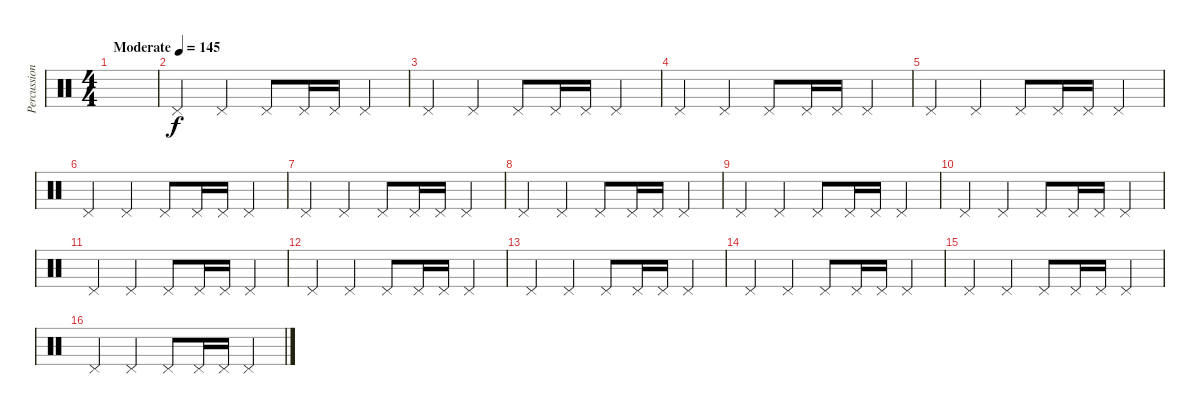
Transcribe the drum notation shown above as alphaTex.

\track ("Percussion" "Percussion") {instrument percussion}
\staff {score}
\articulation defaults
\ts (4 4)
\tempo (145 "Moderate")
\clef neutral
\ks c
|
"Pedal Hi-Hat (hit)".4 "Pedal Hi-Hat (hit)".4 "Pedal Hi-Hat (hit)".8 "Pedal Hi-Hat (hit)".16 "Pedal Hi-Hat (hit)".16 "Pedal Hi-Hat (hit)".4 |
"Pedal Hi-Hat (hit)".4 "Pedal Hi-Hat (hit)".4 "Pedal Hi-Hat (hit)".8 "Pedal Hi-Hat (hit)".16 "Pedal Hi-Hat (hit)".16 "Pedal Hi-Hat (hit)".4 |
"Pedal Hi-Hat (hit)".4 "Pedal Hi-Hat (hit)".4 "Pedal Hi-Hat (hit)".8 "Pedal Hi-Hat (hit)".16 "Pedal Hi-Hat (hit)".16 "Pedal Hi-Hat (hit)".4 |
"Pedal Hi-Hat (hit)".4 "Pedal Hi-Hat (hit)".4 "Pedal Hi-Hat (hit)".8 "Pedal Hi-Hat (hit)".16 "Pedal Hi-Hat (hit)".16 "Pedal Hi-Hat (hit)".4 |
"Pedal Hi-Hat (hit)".4 "Pedal Hi-Hat (hit)".4 "Pedal Hi-Hat (hit)".8 "Pedal Hi-Hat (hit)".16 "Pedal Hi-Hat (hit)".16 "Pedal Hi-Hat (hit)".4 |
"Pedal Hi-Hat (hit)".4 "Pedal Hi-Hat (hit)".4 "Pedal Hi-Hat (hit)".8 "Pedal Hi-Hat (hit)".16 "Pedal Hi-Hat (hit)".16 "Pedal Hi-Hat (hit)".4 |
"Pedal Hi-Hat (hit)".4 "Pedal Hi-Hat (hit)".4 "Pedal Hi-Hat (hit)".8 "Pedal Hi-Hat (hit)".16 "Pedal Hi-Hat (hit)".16 "Pedal Hi-Hat (hit)".4 |
"Pedal Hi-Hat (hit)".4 "Pedal Hi-Hat (hit)".4 "Pedal Hi-Hat (hit)".8 "Pedal Hi-Hat (hit)".16 "Pedal Hi-Hat (hit)".16 "Pedal Hi-Hat (hit)".4 |
"Pedal Hi-Hat (hit)".4 "Pedal Hi-Hat (hit)".4 "Pedal Hi-Hat (hit)".8 "Pedal Hi-Hat (hit)".16 "Pedal Hi-Hat (hit)".16 "Pedal Hi-Hat (hit)".4 |
"Pedal Hi-Hat (hit)".4 "Pedal Hi-Hat (hit)".4 "Pedal Hi-Hat (hit)".8 "Pedal Hi-Hat (hit)".16 "Pedal Hi-Hat (hit)".16 "Pedal Hi-Hat (hit)".4 |
"Pedal Hi-Hat (hit)".4 "Pedal Hi-Hat (hit)".4 "Pedal Hi-Hat (hit)".8 "Pedal Hi-Hat (hit)".16 "Pedal Hi-Hat (hit)".16 "Pedal Hi-Hat (hit)".4 |
"Pedal Hi-Hat (hit)".4 "Pedal Hi-Hat (hit)".4 "Pedal Hi-Hat (hit)".8 "Pedal Hi-Hat (hit)".16 "Pedal Hi-Hat (hit)".16 "Pedal Hi-Hat (hit)".4 |
"Pedal Hi-Hat (hit)".4 "Pedal Hi-Hat (hit)".4 "Pedal Hi-Hat (hit)".8 "Pedal Hi-Hat (hit)".16 "Pedal Hi-Hat (hit)".16 "Pedal Hi-Hat (hit)".4 |
"Pedal Hi-Hat (hit)".4 "Pedal Hi-Hat (hit)".4 "Pedal Hi-Hat (hit)".8 "Pedal Hi-Hat (hit)".16 "Pedal Hi-Hat (hit)".16 "Pedal Hi-Hat (hit)".4 |
"Pedal Hi-Hat (hit)".4 "Pedal Hi-Hat (hit)".4 "Pedal Hi-Hat (hit)".8 "Pedal Hi-Hat (hit)".16 "Pedal Hi-Hat (hit)".16 "Pedal Hi-Hat (hit)".4
